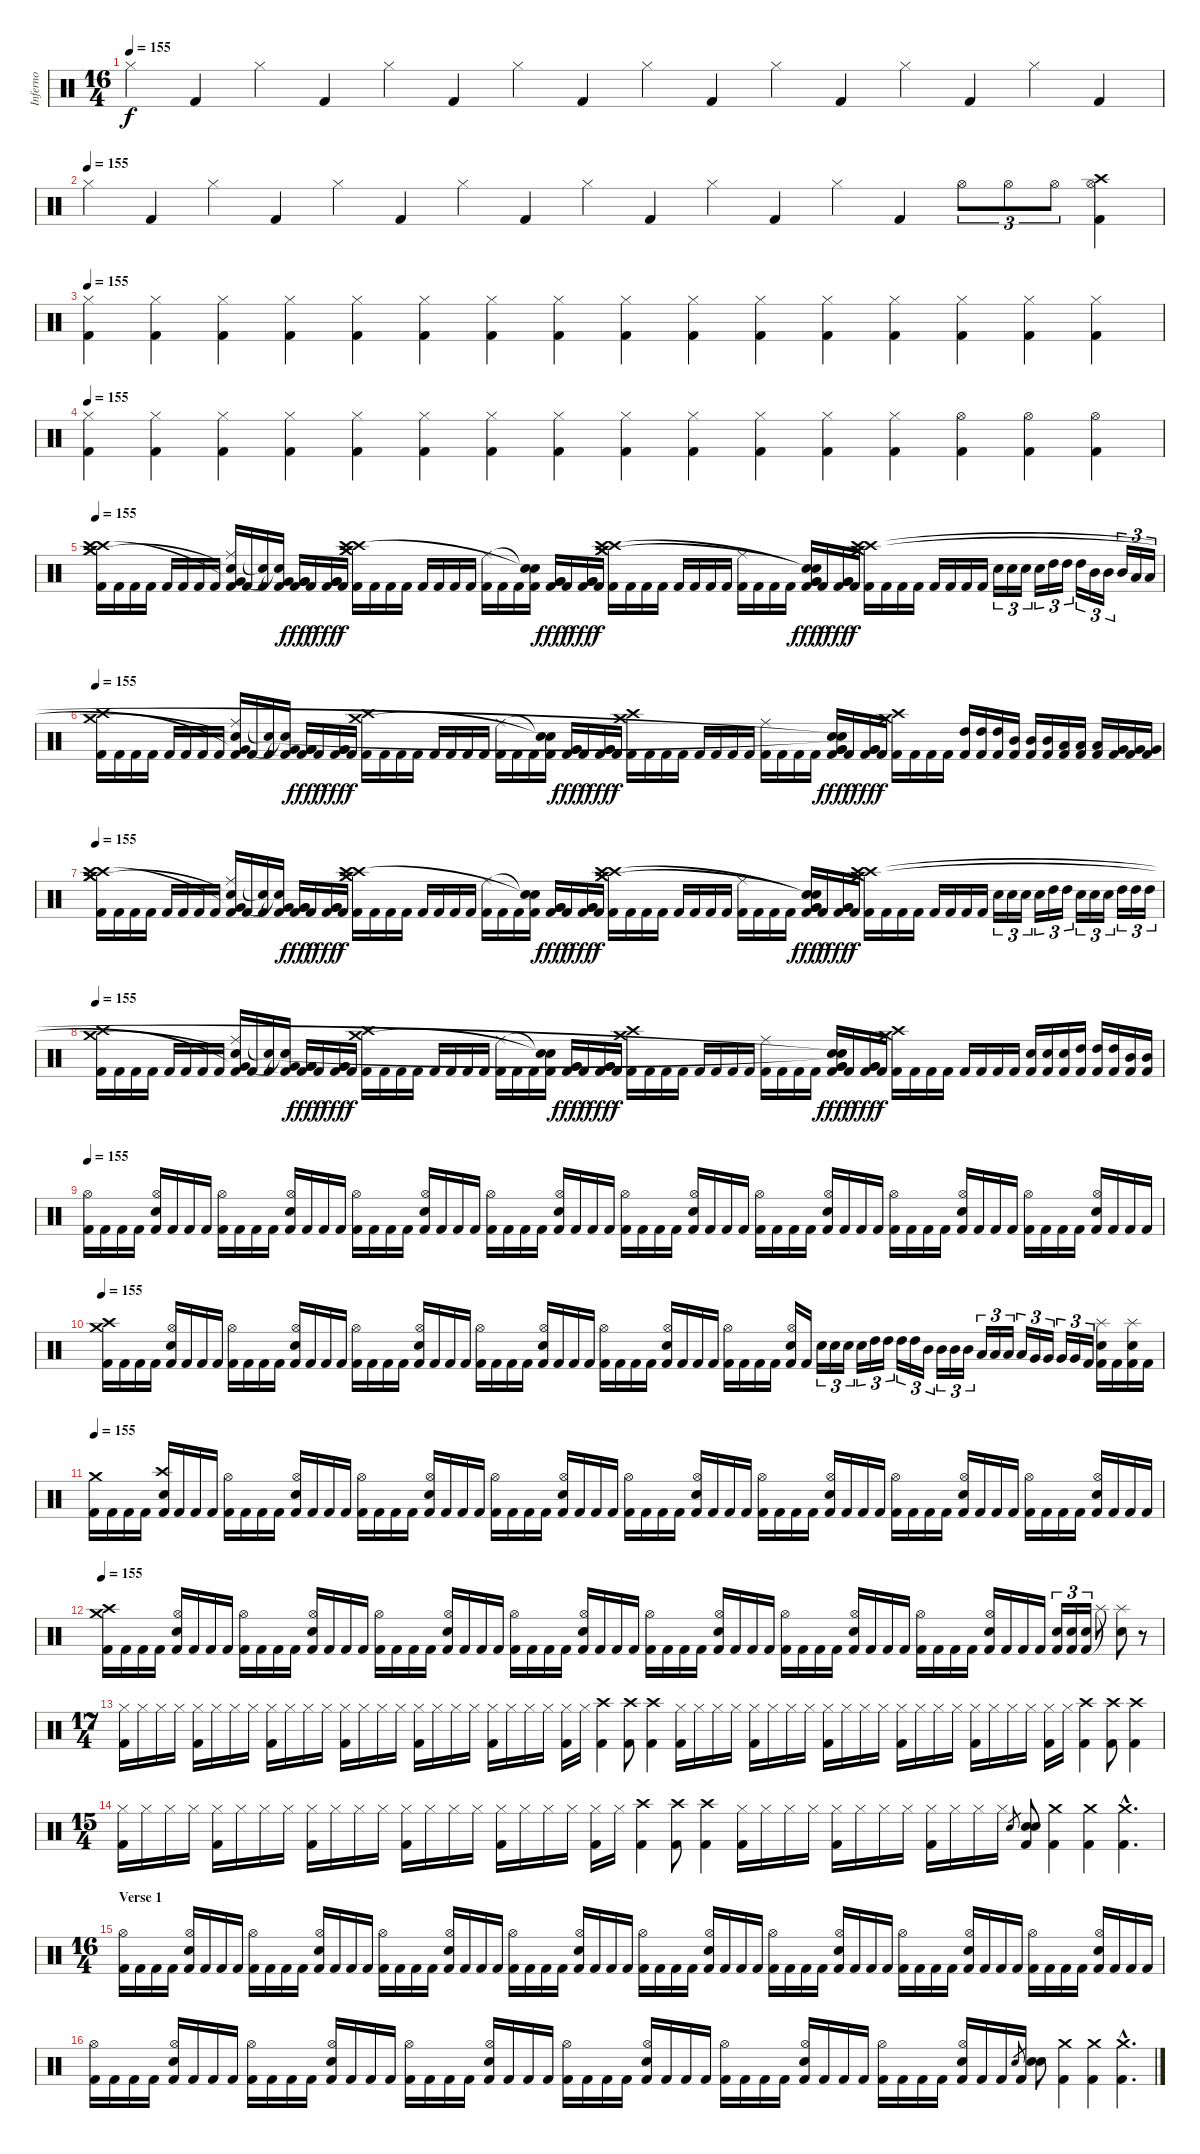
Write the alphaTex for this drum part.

\track ("Inferno" "Inferno") {instrument percussion}
\staff {score}
\articulation defaults
\ts (16 4)
\tempo 155
\clef neutral
\ks c "Hi-Hat (closed)".4{dy f} "Kick (hit) 2".4 "Hi-Hat (closed)".4 "Kick (hit) 2".4 "Hi-Hat (closed)".4 "Kick (hit) 2".4 "Hi-Hat (closed)".4 "Kick (hit) 2".4 "Hi-Hat (closed)".4 "Kick (hit) 2".4 "Hi-Hat (closed)".4 "Kick (hit) 2".4 "Hi-Hat (closed)".4 "Kick (hit) 2".4 "Hi-Hat (closed)".4 "Kick (hit) 2".4
|
\tempo (155)
"Hi-Hat (closed)".4 "Kick (hit) 2".4 "Hi-Hat (closed)".4 "Kick (hit) 2".4 "Hi-Hat (closed)".4 "Kick (hit) 2".4 "Hi-Hat (closed)".4 "Kick (hit) 2".4 "Hi-Hat (closed)".4 "Kick (hit) 2".4 "Hi-Hat (closed)".4 "Kick (hit) 2".4 "Hi-Hat (closed)".4 "Kick (hit) 2".4 "Hi-Hat (open)".8{tu (3 2)} "Hi-Hat (open)".8{tu (3 2)} "Hi-Hat (open)".8{tu (3 2)} ("Kick (hit) 2" "Hi-Hat (open)" "Crash high (hit)").4 |
\tempo 155
("Kick (hit) 2" "Hi-Hat (closed)").4 ("Kick (hit) 2" "Hi-Hat (closed)").4 ("Kick (hit) 2" "Hi-Hat (closed)").4 ("Kick (hit) 2" "Hi-Hat (closed)").4 ("Kick (hit) 2" "Hi-Hat (closed)").4 ("Kick (hit) 2" "Hi-Hat (closed)").4 ("Kick (hit) 2" "Hi-Hat (closed)").4 ("Kick (hit) 2" "Hi-Hat (closed)").4 ("Kick (hit) 2" "Hi-Hat (closed)").4 ("Kick (hit) 2" "Hi-Hat (closed)").4 ("Kick (hit) 2" "Hi-Hat (closed)").4 ("Kick (hit) 2" "Hi-Hat (closed)").4 ("Kick (hit) 2" "Hi-Hat (closed)").4 ("Kick (hit) 2" "Hi-Hat (closed)").4 ("Kick (hit) 2" "Hi-Hat (closed)").4 ("Kick (hit) 2" "Hi-Hat (closed)").4 |
\tempo 155
("Kick (hit) 2" "Hi-Hat (closed)").4 ("Kick (hit) 2" "Hi-Hat (closed)").4 ("Kick (hit) 2" "Hi-Hat (closed)").4 ("Kick (hit) 2" "Hi-Hat (closed)").4 ("Kick (hit) 2" "Hi-Hat (closed)").4 ("Kick (hit) 2" "Hi-Hat (closed)").4 ("Kick (hit) 2" "Hi-Hat (closed)").4 ("Kick (hit) 2" "Hi-Hat (closed)").4 ("Kick (hit) 2" "Hi-Hat (closed)").4 ("Kick (hit) 2" "Hi-Hat (closed)").4 ("Kick (hit) 2" "Hi-Hat (closed)").4 ("Kick (hit) 2" "Hi-Hat (closed)").4 ("Kick (hit) 2" "Hi-Hat (closed)").4 ("Kick (hit) 2" "Hi-Hat (open)").4 ("Kick (hit) 2" "Hi-Hat (open)").4 ("Kick (hit) 2" "Hi-Hat (open)").4 |
\tempo 155
("Kick (hit) 2" "Crash high (hit)" "Crash high (hit)" "Crash medium (hit)" "Crash medium (hit)").16 "Kick (hit) 2".16 "Kick (hit) 2".16 "Kick (hit) 2".16 "Kick (hit) 2".16 "Kick (hit) 2".16 "Kick (hit) 2".16 "Kick (hit) 2".16 ("Kick (hit) 2" "Ride (middle)" "Very Low Tom (hit)"{t} "Snare (hit)"{t}).16 "Kick (hit) 2".16 ("Kick (hit) 2" "Snare (hit)"{t}).16 ("Kick (hit) 2" "Very Low Tom (hit)"{t} "Snare (hit)"{t}).16 ("Kick (hit) 2" "Very Low Tom (hit)" "Very Low Tom (hit)").16{dy fff} "Kick (hit) 2".16{dy f} ("Kick (hit) 2" "Very Low Tom (hit)" "Very Low Tom (hit)").16{dy fff} "Kick (hit) 2".16{dy f} ("Kick (hit) 2" "Crash high (hit)" "Crash high (hit)" "Crash medium (hit)" "Crash medium (hit)").16 "Kick (hit) 2".16 "Kick (hit) 2".16 "Kick (hit) 2".16 "Kick (hit) 2".16 "Kick (hit) 2".16 "Kick (hit) 2".16 "Kick (hit) 2".16 ("Kick (hit) 2" "Ride (middle)").16 "Kick (hit) 2".16 "Kick (hit) 2".16 ("Kick (hit) 2" "Snare (hit)"{t} "Snare (hit)"{t}).16 ("Kick (hit) 2" "Very Low Tom (hit)" "Very Low Tom (hit)").16{dy fff} "Kick (hit) 2".16{dy f} ("Kick (hit) 2" "Very Low Tom (hit)" "Very Low Tom (hit)").16{dy fff} "Kick (hit) 2".16{dy f} ("Kick (hit) 2" "Crash medium (hit)" "Crash high (hit)" "Crash high (hit)" "Crash medium (hit)").16 "Kick (hit) 2".16 "Kick (hit) 2".16 "Kick (hit) 2".16 "Kick (hit) 2".16 "Kick (hit) 2".16 "Kick (hit) 2".16 "Kick (hit) 2".16 ("Kick (hit) 2" "Ride (middle)").16 "Kick (hit) 2".16 "Kick (hit) 2".16 "Kick (hit) 2".16 ("Kick (hit) 2" "Very Low Tom (hit)" "Very Low Tom (hit)" "Snare (hit)"{t} "Snare (hit)"{t}).16{dy fff} "Kick (hit) 2".16{dy f} ("Kick (hit) 2" "Very Low Tom (hit)" "Very Low Tom (hit)").16{dy fff} "Kick (hit) 2".16{dy f} ("Kick (hit) 2" "Crash high (hit)" "Crash medium (hit)" "Crash medium (hit)" "Crash high (hit)").16 "Kick (hit) 2".16 "Kick (hit) 2".16 "Kick (hit) 2".16 "Kick (hit) 2".16 "Kick (hit) 2".16 "Kick (hit) 2".16 "Kick (hit) 2".16 "Electric Snare (hit)".16{tu (3 2)} "Electric Snare (hit)".16{tu (3 2)} "Electric Snare (hit)".16{tu (3 2)} "Electric Snare (hit)".16{tu (3 2)} "High Tom (hit)".16{tu (3 2)} "High Tom (hit)".16{tu (3 2)} "High Tom (hit)".16{tu (3 2)} "Mid Tom (hit)".16{tu (3 2)} "Mid Tom (hit)".16{tu (3 2)} "Mid Tom (hit)".16{tu (3 2)} "Low Tom (hit)".16{tu (3 2)} "Low Tom (hit)".16{tu (3 2)} |
\tempo 155
("Kick (hit) 2" "Crash high (hit)" "Crash medium (hit)").16 "Kick (hit) 2".16 "Kick (hit) 2".16 "Kick (hit) 2".16 "Kick (hit) 2".16 "Kick (hit) 2".16 "Kick (hit) 2".16 "Kick (hit) 2".16 ("Kick (hit) 2" "Ride (middle)" "Very Low Tom (hit)"{t} "Snare (hit)"{t}).16 "Kick (hit) 2".16 ("Kick (hit) 2" "Snare (hit)"{t}).16 ("Kick (hit) 2" "Very Low Tom (hit)"{t} "Snare (hit)"{t}).16 ("Kick (hit) 2" "Very Low Tom (hit)" "Very Low Tom (hit)").16{dy fff} "Kick (hit) 2".16{dy f} ("Kick (hit) 2" "Very Low Tom (hit)" "Very Low Tom (hit)").16{dy fff} "Kick (hit) 2".16{dy f} ("Kick (hit) 2" "Crash high (hit)" "Crash medium (hit)").16 "Kick (hit) 2".16 "Kick (hit) 2".16 "Kick (hit) 2".16 "Kick (hit) 2".16 "Kick (hit) 2".16 "Kick (hit) 2".16 "Kick (hit) 2".16 ("Kick (hit) 2" "Ride (middle)").16 "Kick (hit) 2".16 "Kick (hit) 2".16 ("Kick (hit) 2" "Snare (hit)"{t} "Snare (hit)"{t}).16 ("Kick (hit) 2" "Very Low Tom (hit)" "Very Low Tom (hit)").16{dy fff} "Kick (hit) 2".16{dy f} ("Kick (hit) 2" "Very Low Tom (hit)" "Very Low Tom (hit)").16{dy fff} "Kick (hit) 2".16{dy f} ("Kick (hit) 2" "Crash high (hit)" "Crash medium (hit)").16 "Kick (hit) 2".16 "Kick (hit) 2".16 "Kick (hit) 2".16 "Kick (hit) 2".16 "Kick (hit) 2".16 "Kick (hit) 2".16 "Kick (hit) 2".16 ("Kick (hit) 2" "Ride (middle)").16 "Kick (hit) 2".16 "Kick (hit) 2".16 "Kick (hit) 2".16 ("Kick (hit) 2" "Very Low Tom (hit)" "Very Low Tom (hit)" "Snare (hit)"{t} "Snare (hit)"{t}).16{dy fff} "Kick (hit) 2".16{dy f} ("Kick (hit) 2" "Very Low Tom (hit)" "Very Low Tom (hit)").16{dy fff} "Kick (hit) 2".16{dy f} ("Kick (hit) 2" "Crash medium (hit)" "Crash high (hit)").16 "Kick (hit) 2".16 "Kick (hit) 2".16 "Kick (hit) 2".16 ("Kick (hit) 2" "High Tom (hit)").16 ("Kick (hit) 2" "High Tom (hit)").16 ("Kick (hit) 2" "High Tom (hit)").16 ("Kick (hit) 2" "Mid Tom (hit)").16 ("Kick (hit) 2" "Mid Tom (hit)").16 ("Kick (hit) 2" "Mid Tom (hit)").16 ("Kick (hit) 2" "Low Tom (hit)").16 ("Kick (hit) 2" "Low Tom (hit)").16 ("Kick (hit) 2" "Low Tom (hit)").16 ("Kick (hit) 2" "Very Low Tom (hit)").16 ("Kick (hit) 2" "Very Low Tom (hit)").16 ("Kick (hit) 2" "Very Low Tom (hit)").16 |
\tempo 155
("Kick (hit) 2" "Crash high (hit)" "Crash high (hit)" "Crash medium (hit)" "Crash medium (hit)").16 "Kick (hit) 2".16 "Kick (hit) 2".16 "Kick (hit) 2".16 "Kick (hit) 2".16 "Kick (hit) 2".16 "Kick (hit) 2".16 "Kick (hit) 2".16 ("Kick (hit) 2" "Ride (middle)" "Very Low Tom (hit)"{t} "Snare (hit)"{t}).16 "Kick (hit) 2".16 ("Kick (hit) 2" "Snare (hit)"{t}).16 ("Kick (hit) 2" "Very Low Tom (hit)"{t} "Snare (hit)"{t}).16 ("Kick (hit) 2" "Very Low Tom (hit)" "Very Low Tom (hit)").16{dy fff} "Kick (hit) 2".16{dy f} ("Kick (hit) 2" "Very Low Tom (hit)" "Very Low Tom (hit)").16{dy fff} "Kick (hit) 2".16{dy f} ("Kick (hit) 2" "Crash high (hit)" "Crash high (hit)" "Crash medium (hit)" "Crash medium (hit)").16 "Kick (hit) 2".16 "Kick (hit) 2".16 "Kick (hit) 2".16 "Kick (hit) 2".16 "Kick (hit) 2".16 "Kick (hit) 2".16 "Kick (hit) 2".16 ("Kick (hit) 2" "Ride (middle)").16 "Kick (hit) 2".16 "Kick (hit) 2".16 ("Kick (hit) 2" "Snare (hit)"{t} "Snare (hit)"{t}).16 ("Kick (hit) 2" "Very Low Tom (hit)" "Very Low Tom (hit)").16{dy fff} "Kick (hit) 2".16{dy f} ("Kick (hit) 2" "Very Low Tom (hit)" "Very Low Tom (hit)").16{dy fff} "Kick (hit) 2".16{dy f} ("Kick (hit) 2" "Crash medium (hit)" "Crash high (hit)" "Crash high (hit)" "Crash medium (hit)").16 "Kick (hit) 2".16 "Kick (hit) 2".16 "Kick (hit) 2".16 "Kick (hit) 2".16 "Kick (hit) 2".16 "Kick (hit) 2".16 "Kick (hit) 2".16 ("Kick (hit) 2" "Ride (middle)").16 "Kick (hit) 2".16 "Kick (hit) 2".16 "Kick (hit) 2".16 ("Kick (hit) 2" "Very Low Tom (hit)" "Very Low Tom (hit)" "Snare (hit)"{t} "Snare (hit)"{t}).16{dy fff} "Kick (hit) 2".16{dy f} ("Kick (hit) 2" "Very Low Tom (hit)" "Very Low Tom (hit)").16{dy fff} "Kick (hit) 2".16{dy f} ("Kick (hit) 2" "Crash high (hit)" "Crash medium (hit)" "Crash medium (hit)" "Crash high (hit)").16 "Kick (hit) 2".16 "Kick (hit) 2".16 "Kick (hit) 2".16 "Kick (hit) 2".16 "Kick (hit) 2".16 "Kick (hit) 2".16 "Kick (hit) 2".16 "Electric Snare (hit)".16{tu (3 2)} "Electric Snare (hit)".16{tu (3 2)} "Electric Snare (hit)".16{tu (3 2)} "Electric Snare (hit)".16{tu (3 2)} "High Tom (hit)".16{tu (3 2)} "High Tom (hit)".16{tu (3 2)} "Electric Snare (hit)".16{tu (3 2)} "Electric Snare (hit)".16{tu (3 2)} "Electric Snare (hit)".16{tu (3 2)} "High Tom (hit)".16{tu (3 2)} "High Tom (hit)".16{tu (3 2)} "High Tom (hit)".16{tu (3 2)} |
\tempo 155
("Kick (hit) 2" "Crash high (hit)" "Crash medium (hit)").16 "Kick (hit) 2".16 "Kick (hit) 2".16 "Kick (hit) 2".16 "Kick (hit) 2".16 "Kick (hit) 2".16 "Kick (hit) 2".16 "Kick (hit) 2".16 ("Kick (hit) 2" "Ride (middle)" "Very Low Tom (hit)"{t} "Snare (hit)"{t}).16 "Kick (hit) 2".16 ("Kick (hit) 2" "Snare (hit)"{t}).16 ("Kick (hit) 2" "Very Low Tom (hit)"{t} "Snare (hit)"{t}).16 ("Kick (hit) 2" "Very Low Tom (hit)" "Very Low Tom (hit)").16{dy fff} "Kick (hit) 2".16{dy f} ("Kick (hit) 2" "Very Low Tom (hit)" "Very Low Tom (hit)").16{dy fff} "Kick (hit) 2".16{dy f} ("Kick (hit) 2" "Crash high (hit)" "Crash medium (hit)").16 "Kick (hit) 2".16 "Kick (hit) 2".16 "Kick (hit) 2".16 "Kick (hit) 2".16 "Kick (hit) 2".16 "Kick (hit) 2".16 "Kick (hit) 2".16 ("Kick (hit) 2" "Ride (middle)").16 "Kick (hit) 2".16 "Kick (hit) 2".16 ("Kick (hit) 2" "Snare (hit)"{t} "Snare (hit)"{t}).16 ("Kick (hit) 2" "Very Low Tom (hit)" "Very Low Tom (hit)").16{dy fff} "Kick (hit) 2".16{dy f} ("Kick (hit) 2" "Very Low Tom (hit)" "Very Low Tom (hit)").16{dy fff} "Kick (hit) 2".16{dy f} ("Kick (hit) 2" "Crash high (hit)" "Crash medium (hit)").16 "Kick (hit) 2".16 "Kick (hit) 2".16 "Kick (hit) 2".16 "Kick (hit) 2".16 "Kick (hit) 2".16 "Kick (hit) 2".16 "Kick (hit) 2".16 ("Kick (hit) 2" "Ride (middle)").16 "Kick (hit) 2".16 "Kick (hit) 2".16 "Kick (hit) 2".16 ("Kick (hit) 2" "Very Low Tom (hit)" "Very Low Tom (hit)" "Snare (hit)"{t} "Snare (hit)"{t}).16{dy fff} "Kick (hit) 2".16{dy f} ("Kick (hit) 2" "Very Low Tom (hit)" "Very Low Tom (hit)").16{dy fff} "Kick (hit) 2".16{dy f} ("Kick (hit) 2" "Crash medium (hit)" "Crash high (hit)").16 "Kick (hit) 2".16 "Kick (hit) 2".16 "Kick (hit) 2".16 "Kick (hit) 2".16 "Kick (hit) 2".16 "Kick (hit) 2".16 "Kick (hit) 2".16 ("Kick (hit) 2" "Electric Snare (hit)").16 ("Kick (hit) 2" "Electric Snare (hit)").16 ("Kick (hit) 2" "Electric Snare (hit)").16 ("Kick (hit) 2" "High Tom (hit)").16 ("Kick (hit) 2" "High Tom (hit)").16 ("Kick (hit) 2" "High Tom (hit)").16 ("Kick (hit) 2" "Mid Tom (hit)").16 ("Kick (hit) 2" "Mid Tom (hit)").16 |
\tempo 155
("Kick (hit) 2" "Hi-Hat (open)").16 "Kick (hit) 2".16 "Kick (hit) 2".16 "Kick (hit) 2".16 ("Kick (hit) 2" "Hi-Hat (open)" "Electric Snare (hit)").16 "Kick (hit) 2".16 "Kick (hit) 2".16 "Kick (hit) 2".16 ("Kick (hit) 2" "Hi-Hat (open)").16 "Kick (hit) 2".16 "Kick (hit) 2".16 "Kick (hit) 2".16 ("Kick (hit) 2" "Hi-Hat (open)" "Electric Snare (hit)").16 "Kick (hit) 2".16 "Kick (hit) 2".16 "Kick (hit) 2".16 ("Kick (hit) 2" "Hi-Hat (open)").16 "Kick (hit) 2".16 "Kick (hit) 2".16 "Kick (hit) 2".16 ("Kick (hit) 2" "Hi-Hat (open)" "Electric Snare (hit)").16 "Kick (hit) 2".16 "Kick (hit) 2".16 "Kick (hit) 2".16 ("Kick (hit) 2" "Hi-Hat (open)").16 "Kick (hit) 2".16 "Kick (hit) 2".16 "Kick (hit) 2".16 ("Kick (hit) 2" "Hi-Hat (open)" "Electric Snare (hit)").16 "Kick (hit) 2".16 "Kick (hit) 2".16 "Kick (hit) 2".16 ("Kick (hit) 2" "Hi-Hat (open)").16 "Kick (hit) 2".16 "Kick (hit) 2".16 "Kick (hit) 2".16 ("Kick (hit) 2" "Hi-Hat (open)" "Electric Snare (hit)").16 "Kick (hit) 2".16 "Kick (hit) 2".16 "Kick (hit) 2".16 ("Kick (hit) 2" "Hi-Hat (open)").16 "Kick (hit) 2".16 "Kick (hit) 2".16 "Kick (hit) 2".16 ("Kick (hit) 2" "Hi-Hat (open)" "Electric Snare (hit)").16 "Kick (hit) 2".16 "Kick (hit) 2".16 "Kick (hit) 2".16 ("Kick (hit) 2" "Hi-Hat (open)").16 "Kick (hit) 2".16 "Kick (hit) 2".16 "Kick (hit) 2".16 ("Kick (hit) 2" "Hi-Hat (open)" "Electric Snare (hit)").16 "Kick (hit) 2".16 "Kick (hit) 2".16 "Kick (hit) 2".16 ("Kick (hit) 2" "Hi-Hat (open)").16 "Kick (hit) 2".16 "Kick (hit) 2".16 "Kick (hit) 2".16 ("Kick (hit) 2" "Hi-Hat (open)" "Electric Snare (hit)").16 "Kick (hit) 2".16 "Kick (hit) 2".16 "Kick (hit) 2".16 |
\tempo 155
("Kick (hit) 2" "Crash high (hit)" "Crash medium (hit)").16 "Kick (hit) 2".16 "Kick (hit) 2".16 "Kick (hit) 2".16 ("Kick (hit) 2" "Hi-Hat (open)" "Electric Snare (hit)").16 "Kick (hit) 2".16 "Kick (hit) 2".16 "Kick (hit) 2".16 ("Kick (hit) 2" "Hi-Hat (open)").16 "Kick (hit) 2".16 "Kick (hit) 2".16 "Kick (hit) 2".16 ("Kick (hit) 2" "Hi-Hat (open)" "Electric Snare (hit)").16 "Kick (hit) 2".16 "Kick (hit) 2".16 "Kick (hit) 2".16 ("Kick (hit) 2" "Hi-Hat (open)").16 "Kick (hit) 2".16 "Kick (hit) 2".16 "Kick (hit) 2".16 ("Kick (hit) 2" "Hi-Hat (open)" "Electric Snare (hit)").16 "Kick (hit) 2".16 "Kick (hit) 2".16 "Kick (hit) 2".16 ("Kick (hit) 2" "Hi-Hat (open)").16 "Kick (hit) 2".16 "Kick (hit) 2".16 "Kick (hit) 2".16 ("Kick (hit) 2" "Hi-Hat (open)" "Electric Snare (hit)").16 "Kick (hit) 2".16 "Kick (hit) 2".16 "Kick (hit) 2".16 ("Kick (hit) 2" "Hi-Hat (open)").16 "Kick (hit) 2".16 "Kick (hit) 2".16 "Kick (hit) 2".16 ("Kick (hit) 2" "Hi-Hat (open)" "Electric Snare (hit)").16 "Kick (hit) 2".16 "Kick (hit) 2".16 "Kick (hit) 2".16 ("Kick (hit) 2" "Hi-Hat (open)").16 "Kick (hit) 2".16 "Kick (hit) 2".16 "Kick (hit) 2".16 ("Kick (hit) 2" "Hi-Hat (open)" "Electric Snare (hit)").16 "Kick (hit) 2".16 "Electric Snare (hit)".16{tu (3 2)} "Electric Snare (hit)".16{tu (3 2)} "Electric Snare (hit)".16{tu (3 2)} "Electric Snare (hit)".16{tu (3 2)} "High Tom (hit)".16{tu (3 2)} "High Tom (hit)".16{tu (3 2)} "High Tom (hit)".16{tu (3 2)} "High Tom (hit)".16{tu (3 2)} "Mid Tom (hit)".16{tu (3 2)} "Mid Tom (hit)".16{tu (3 2)} "Mid Tom (hit)".16{tu (3 2)} "Mid Tom (hit)".16{tu (3 2)} "Low Tom (hit)".16{tu (3 2)} "Low Tom (hit)".16{tu (3 2)} "Low Tom (hit)".16{tu (3 2)} "Low Tom (hit)".16{tu (3 2)} "Very Low Tom (hit)".16{tu (3 2)} "Very Low Tom (hit)".16{tu (3 2)} "Very Low Tom (hit)".16{tu (3 2)} "Very Low Tom (hit)".16{tu (3 2)} "Kick (hit) 2".16{tu (3 2)} ("Kick (hit) 2" "Electric Snare (hit)" "Splash (hit)").16 "Kick (hit) 2".16 ("Kick (hit) 2" "Electric Snare (hit)" "Splash (hit)").16 "Kick (hit) 2".16 |
\tempo 155
("Kick (hit) 2" "Crash medium (hit)").16 "Kick (hit) 2".16 "Kick (hit) 2".16 "Kick (hit) 2".16 ("Kick (hit) 2" "Crash high (hit)" "Electric Snare (hit)").16 "Kick (hit) 2".16 "Kick (hit) 2".16 "Kick (hit) 2".16 ("Kick (hit) 2" "Hi-Hat (open)").16 "Kick (hit) 2".16 "Kick (hit) 2".16 "Kick (hit) 2".16 ("Kick (hit) 2" "Hi-Hat (open)" "Electric Snare (hit)").16 "Kick (hit) 2".16 "Kick (hit) 2".16 "Kick (hit) 2".16 ("Kick (hit) 2" "Hi-Hat (open)").16 "Kick (hit) 2".16 "Kick (hit) 2".16 "Kick (hit) 2".16 ("Kick (hit) 2" "Hi-Hat (open)" "Electric Snare (hit)").16 "Kick (hit) 2".16 "Kick (hit) 2".16 "Kick (hit) 2".16 ("Kick (hit) 2" "Hi-Hat (open)").16 "Kick (hit) 2".16 "Kick (hit) 2".16 "Kick (hit) 2".16 ("Kick (hit) 2" "Hi-Hat (open)" "Electric Snare (hit)").16 "Kick (hit) 2".16 "Kick (hit) 2".16 "Kick (hit) 2".16 ("Kick (hit) 2" "Hi-Hat (open)").16 "Kick (hit) 2".16 "Kick (hit) 2".16 "Kick (hit) 2".16 ("Kick (hit) 2" "Hi-Hat (open)" "Electric Snare (hit)").16 "Kick (hit) 2".16 "Kick (hit) 2".16 "Kick (hit) 2".16 ("Kick (hit) 2" "Hi-Hat (open)").16 "Kick (hit) 2".16 "Kick (hit) 2".16 "Kick (hit) 2".16 ("Kick (hit) 2" "Hi-Hat (open)" "Electric Snare (hit)").16 "Kick (hit) 2".16 "Kick (hit) 2".16 "Kick (hit) 2".16 ("Kick (hit) 2" "Hi-Hat (open)").16 "Kick (hit) 2".16 "Kick (hit) 2".16 "Kick (hit) 2".16 ("Kick (hit) 2" "Hi-Hat (open)" "Electric Snare (hit)").16 "Kick (hit) 2".16 "Kick (hit) 2".16 "Kick (hit) 2".16 ("Kick (hit) 2" "Hi-Hat (open)").16 "Kick (hit) 2".16 "Kick (hit) 2".16 "Kick (hit) 2".16 ("Kick (hit) 2" "Hi-Hat (open)" "Electric Snare (hit)").16 "Kick (hit) 2".16 "Kick (hit) 2".16 "Kick (hit) 2".16 |
\tempo 155
("Kick (hit) 2" "Crash high (hit)" "Crash medium (hit)").16 "Kick (hit) 2".16 "Kick (hit) 2".16 "Kick (hit) 2".16 ("Kick (hit) 2" "Hi-Hat (open)" "Electric Snare (hit)").16 "Kick (hit) 2".16 "Kick (hit) 2".16 "Kick (hit) 2".16 ("Kick (hit) 2" "Hi-Hat (open)").16 "Kick (hit) 2".16 "Kick (hit) 2".16 "Kick (hit) 2".16 ("Kick (hit) 2" "Hi-Hat (open)" "Electric Snare (hit)").16 "Kick (hit) 2".16 "Kick (hit) 2".16 "Kick (hit) 2".16 ("Kick (hit) 2" "Hi-Hat (open)").16 "Kick (hit) 2".16 "Kick (hit) 2".16 "Kick (hit) 2".16 ("Kick (hit) 2" "Hi-Hat (open)" "Electric Snare (hit)").16 "Kick (hit) 2".16 "Kick (hit) 2".16 "Kick (hit) 2".16 ("Kick (hit) 2" "Hi-Hat (open)").16 "Kick (hit) 2".16 "Kick (hit) 2".16 "Kick (hit) 2".16 ("Kick (hit) 2" "Hi-Hat (open)" "Electric Snare (hit)").16 "Kick (hit) 2".16 "Kick (hit) 2".16 "Kick (hit) 2".16 ("Kick (hit) 2" "Hi-Hat (open)").16 "Kick (hit) 2".16 "Kick (hit) 2".16 "Kick (hit) 2".16 ("Kick (hit) 2" "Hi-Hat (open)" "Electric Snare (hit)").16 "Kick (hit) 2".16 "Kick (hit) 2".16 "Kick (hit) 2".16 ("Kick (hit) 2" "Hi-Hat (open)").16 "Kick (hit) 2".16 "Kick (hit) 2".16 "Kick (hit) 2".16 ("Kick (hit) 2" "Hi-Hat (open)" "Electric Snare (hit)").16 "Kick (hit) 2".16 "Kick (hit) 2".16 "Kick (hit) 2".16 ("Kick (hit) 2" "Hi-Hat (open)").16 "Kick (hit) 2".16 "Kick (hit) 2".16 "Kick (hit) 2".16 ("Kick (hit) 2" "Hi-Hat (open)" "Electric Snare (hit)").16 "Kick (hit) 2".16 "Kick (hit) 2".16 "Kick (hit) 2".16 ("Kick (hit) 2" "Electric Snare (hit)").16{tu (3 2)} ("Kick (hit) 2" "Electric Snare (hit)").16{tu (3 2)} ("Kick (hit) 2" "Electric Snare (hit)").16{tu (3 2)} "Splash (hit)"{t}.8 ("Electric Snare (hit)" "Splash (hit)").8 r.8 |
\ts (17 4)
("Hi-Hat (closed)" "Kick (hit) 2").16 "Hi-Hat (closed)".16 "Hi-Hat (closed)".16 "Hi-Hat (closed)".16 ("Hi-Hat (closed)" "Kick (hit) 2").16 "Hi-Hat (closed)".16 "Hi-Hat (closed)".16 "Hi-Hat (closed)".16 ("Hi-Hat (closed)" "Kick (hit) 2").16 "Hi-Hat (closed)".16 "Hi-Hat (closed)".16 "Hi-Hat (closed)".16 ("Hi-Hat (closed)" "Kick (hit) 2").16 "Hi-Hat (closed)".16 "Hi-Hat (closed)".16 "Hi-Hat (closed)".16 ("Hi-Hat (closed)" "Kick (hit) 2").16 "Hi-Hat (closed)".16 "Hi-Hat (closed)".16 "Hi-Hat (closed)".16 ("Hi-Hat (closed)" "Kick (hit) 2").16 "Hi-Hat (closed)".16 "Hi-Hat (closed)".16 "Hi-Hat (closed)".16 ("Hi-Hat (closed)" "Kick (hit) 2").16 "Hi-Hat (closed)".16 ("Crash high (hit)" "Kick (hit) 2").4 ("Crash high (hit)" "Kick (hit) 2").8 ("Crash high (hit)" "Kick (hit) 2").4 ("Hi-Hat (closed)" "Kick (hit) 2").16 "Hi-Hat (closed)".16 "Hi-Hat (closed)".16 "Hi-Hat (closed)".16 ("Hi-Hat (closed)" "Kick (hit) 2").16 "Hi-Hat (closed)".16 "Hi-Hat (closed)".16 "Hi-Hat (closed)".16 ("Hi-Hat (closed)" "Kick (hit) 2").16 "Hi-Hat (closed)".16 "Hi-Hat (closed)".16 "Hi-Hat (closed)".16 ("Hi-Hat (closed)" "Kick (hit) 2").16 "Hi-Hat (closed)".16 "Hi-Hat (closed)".16 "Hi-Hat (closed)".16 ("Hi-Hat (closed)" "Kick (hit) 2").16 "Hi-Hat (closed)".16 "Hi-Hat (closed)".16 "Hi-Hat (closed)".16 ("Hi-Hat (closed)" "Kick (hit) 2").16 "Hi-Hat (closed)".16 ("Crash high (hit)" "Kick (hit) 2").4 ("Crash high (hit)" "Kick (hit) 2").8 ("Crash high (hit)" "Kick (hit) 2").4 |
\ts (15 4)
("Hi-Hat (closed)" "Kick (hit) 2").16 "Hi-Hat (closed)".16 "Hi-Hat (closed)".16 "Hi-Hat (closed)".16 ("Hi-Hat (closed)" "Kick (hit) 2").16 "Hi-Hat (closed)".16 "Hi-Hat (closed)".16 "Hi-Hat (closed)".16 ("Hi-Hat (closed)" "Kick (hit) 2").16 "Hi-Hat (closed)".16 "Hi-Hat (closed)".16 "Hi-Hat (closed)".16 ("Hi-Hat (closed)" "Kick (hit) 2").16 "Hi-Hat (closed)".16 "Hi-Hat (closed)".16 "Hi-Hat (closed)".16 ("Hi-Hat (closed)" "Kick (hit) 2").16 "Hi-Hat (closed)".16 "Hi-Hat (closed)".16 "Hi-Hat (closed)".16 ("Hi-Hat (closed)" "Kick (hit) 2").16 "Hi-Hat (closed)".16 ("Crash high (hit)" "Kick (hit) 2").4 ("Crash high (hit)" "Kick (hit) 2").8 ("Crash high (hit)" "Kick (hit) 2").4 ("Hi-Hat (closed)" "Kick (hit) 2").16 "Hi-Hat (closed)".16 "Hi-Hat (closed)".16 "Hi-Hat (closed)".16 ("Hi-Hat (closed)" "Kick (hit) 2").16 "Hi-Hat (closed)".16 "Hi-Hat (closed)".16 "Hi-Hat (closed)".16 ("Hi-Hat (closed)" "Kick (hit) 2").16 "Hi-Hat (closed)".16 "Hi-Hat (closed)".16 "Hi-Hat (closed)".16 "Electric Snare (hit)".8{gr} ("Electric Snare (hit)" "Electric Snare (hit)" "Kick (hit) 2").8 ("Crash medium (hit)" "Kick (hit) 2").4 ("Crash medium (hit)" "Kick (hit) 2").4 ("Crash medium (hit)"{hac} "Kick (hit) 2"{hac}).4{d} |
\ts (16 4)
\section ("" "Verse 1")
("Kick (hit) 2" "Hi-Hat (open)").16 "Kick (hit) 2".16 "Kick (hit) 2".16 "Kick (hit) 2".16 ("Kick (hit) 2" "Hi-Hat (open)" "Electric Snare (hit)").16 "Kick (hit) 2".16 "Kick (hit) 2".16 "Kick (hit) 2".16 ("Kick (hit) 2" "Hi-Hat (open)").16 "Kick (hit) 2".16 "Kick (hit) 2".16 "Kick (hit) 2".16 ("Kick (hit) 2" "Hi-Hat (open)" "Electric Snare (hit)").16 "Kick (hit) 2".16 "Kick (hit) 2".16 "Kick (hit) 2".16 ("Kick (hit) 2" "Hi-Hat (open)").16 "Kick (hit) 2".16 "Kick (hit) 2".16 "Kick (hit) 2".16 ("Kick (hit) 2" "Hi-Hat (open)" "Electric Snare (hit)").16 "Kick (hit) 2".16 "Kick (hit) 2".16 "Kick (hit) 2".16 ("Kick (hit) 2" "Hi-Hat (open)").16 "Kick (hit) 2".16 "Kick (hit) 2".16 "Kick (hit) 2".16 ("Kick (hit) 2" "Hi-Hat (open)" "Electric Snare (hit)").16 "Kick (hit) 2".16 "Kick (hit) 2".16 "Kick (hit) 2".16 ("Kick (hit) 2" "Hi-Hat (open)").16 "Kick (hit) 2".16 "Kick (hit) 2".16 "Kick (hit) 2".16 ("Kick (hit) 2" "Hi-Hat (open)" "Electric Snare (hit)").16 "Kick (hit) 2".16 "Kick (hit) 2".16 "Kick (hit) 2".16 ("Kick (hit) 2" "Hi-Hat (open)").16 "Kick (hit) 2".16 "Kick (hit) 2".16 "Kick (hit) 2".16 ("Kick (hit) 2" "Hi-Hat (open)" "Electric Snare (hit)").16 "Kick (hit) 2".16 "Kick (hit) 2".16 "Kick (hit) 2".16 ("Kick (hit) 2" "Hi-Hat (open)").16 "Kick (hit) 2".16 "Kick (hit) 2".16 "Kick (hit) 2".16 ("Kick (hit) 2" "Hi-Hat (open)" "Electric Snare (hit)").16 "Kick (hit) 2".16 "Kick (hit) 2".16 "Kick (hit) 2".16 ("Kick (hit) 2" "Hi-Hat (open)").16 "Kick (hit) 2".16 "Kick (hit) 2".16 "Kick (hit) 2".16 ("Kick (hit) 2" "Hi-Hat (open)" "Electric Snare (hit)").16 "Kick (hit) 2".16 "Kick (hit) 2".16 "Kick (hit) 2".16 |
("Kick (hit) 2" "Hi-Hat (open)").16 "Kick (hit) 2".16 "Kick (hit) 2".16 "Kick (hit) 2".16 ("Kick (hit) 2" "Hi-Hat (open)" "Electric Snare (hit)").16 "Kick (hit) 2".16 "Kick (hit) 2".16 "Kick (hit) 2".16 ("Kick (hit) 2" "Hi-Hat (open)").16 "Kick (hit) 2".16 "Kick (hit) 2".16 "Kick (hit) 2".16 ("Kick (hit) 2" "Hi-Hat (open)" "Electric Snare (hit)").16 "Kick (hit) 2".16 "Kick (hit) 2".16 "Kick (hit) 2".16 ("Kick (hit) 2" "Hi-Hat (open)").16 "Kick (hit) 2".16 "Kick (hit) 2".16 "Kick (hit) 2".16 ("Kick (hit) 2" "Hi-Hat (open)" "Electric Snare (hit)").16 "Kick (hit) 2".16 "Kick (hit) 2".16 "Kick (hit) 2".16 ("Kick (hit) 2" "Hi-Hat (open)").16 "Kick (hit) 2".16 "Kick (hit) 2".16 "Kick (hit) 2".16 ("Kick (hit) 2" "Hi-Hat (open)" "Electric Snare (hit)").16 "Kick (hit) 2".16 "Kick (hit) 2".16 "Kick (hit) 2".16 ("Kick (hit) 2" "Hi-Hat (open)").16 "Kick (hit) 2".16 "Kick (hit) 2".16 "Kick (hit) 2".16 ("Kick (hit) 2" "Hi-Hat (open)" "Electric Snare (hit)").16 "Kick (hit) 2".16 "Kick (hit) 2".16 "Kick (hit) 2".16 ("Kick (hit) 2" "Hi-Hat (open)").16 "Kick (hit) 2".16 "Kick (hit) 2".16 "Kick (hit) 2".16 ("Kick (hit) 2" "Hi-Hat (open)" "Electric Snare (hit)").16 "Kick (hit) 2".16 "Kick (hit) 2".16 "Kick (hit) 2".16 "Electric Snare (hit)".8{gr} ("Electric Snare (hit)" "Electric Snare (hit)").8 ("Crash medium (hit)" "Kick (hit) 2").4 ("Kick (hit) 2" "Crash medium (hit)").4 ("Kick (hit) 2"{hac} "Crash medium (hit)"{hac}).4{d}
